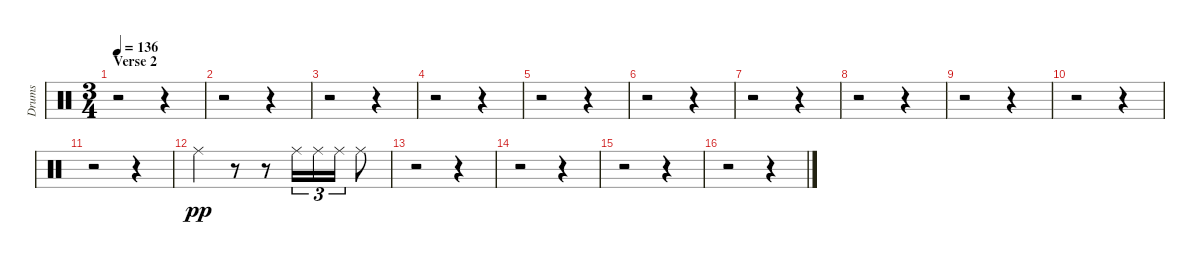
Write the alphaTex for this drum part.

\track ("Drums" "Drums") {instrument percussion}
\staff {score}
\articulation defaults
\ts (3 4)
\section ("" "Verse 2")
\tempo 136
\clef neutral
\ks c
r.2{dy pp} r.4 |
r.2 r.4 |
r.2 r.4 |
r.2 r.4 |
r.2 r.4 |
r.2 r.4 |
r.2 r.4 |
r.2 r.4 |
r.2 r.4 |
r.2 r.4 |
r.2 r.4 |
"Ride (middle)".4 r.8 r.8 "Ride (middle)".16{tu (3 2)} "Ride (middle)".16{tu (3 2)} "Ride (middle)".16{tu (3 2)} "Ride (middle)".8 |
r.2 r.4 |
r.2 r.4 |
r.2 r.4 |
r.2 r.4
